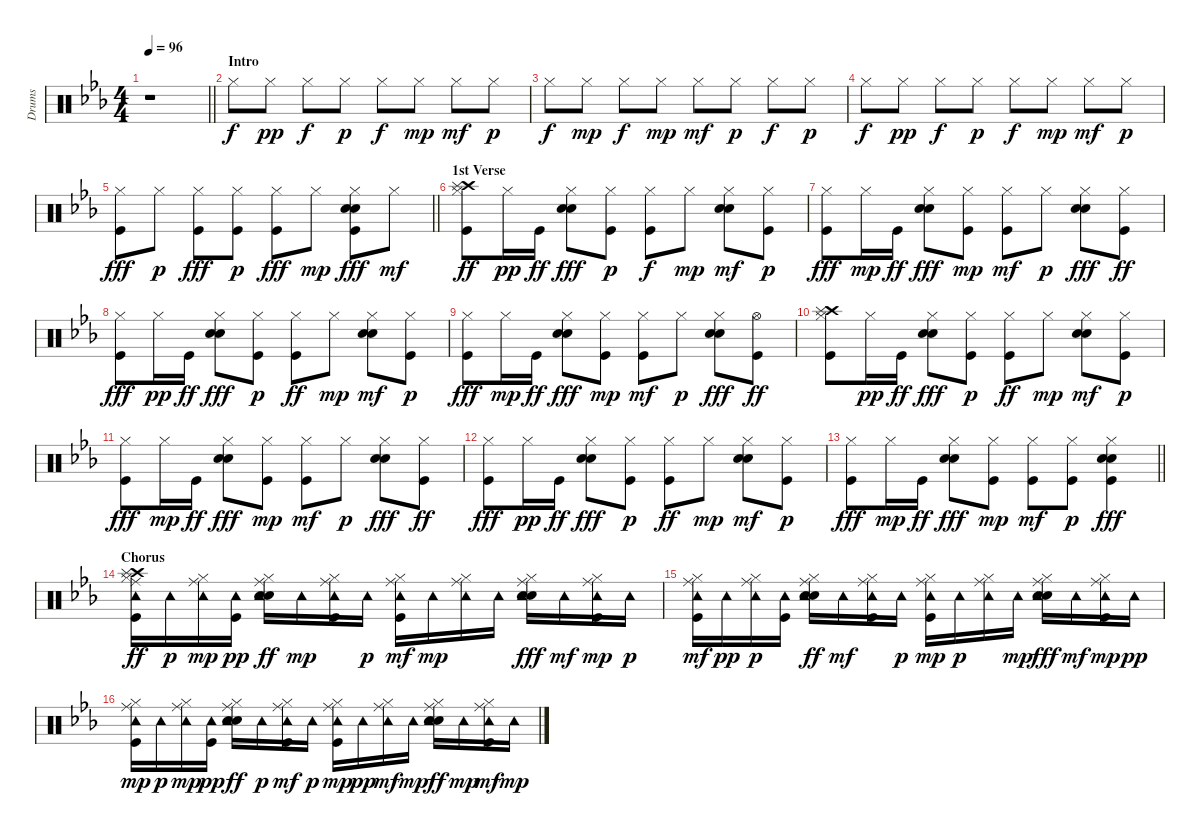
\track ("Drums" "Drums") {instrument percussion}
\staff {score}
\articulation defaults
\ts (4 4)
\tempo 96
\clef neutral
\barLineRight lightlight
\ks eb
r.1{dy f} |
\section ("" "Intro")
"Hi-Hat (closed)".8 "Hi-Hat (closed)".8{dy pp} "Hi-Hat (closed)".8{dy f} "Hi-Hat (closed)".8{dy p} "Hi-Hat (closed)".8{dy f} "Hi-Hat (closed)".8{dy mp} "Hi-Hat (closed)".8{dy mf} "Hi-Hat (closed)".8{dy p} |
"Hi-Hat (closed)".8{dy f} "Hi-Hat (closed)".8{dy mp} "Hi-Hat (closed)".8{dy f} "Hi-Hat (closed)".8{dy mp} "Hi-Hat (closed)".8{dy mf} "Hi-Hat (closed)".8{dy p} "Hi-Hat (closed)".8{dy f} "Hi-Hat (closed)".8{dy p} |
"Hi-Hat (closed)".8{dy f} "Hi-Hat (closed)".8{dy pp} "Hi-Hat (closed)".8{dy f} "Hi-Hat (closed)".8{dy p} "Hi-Hat (closed)".8{dy f} "Hi-Hat (closed)".8{dy mp} "Hi-Hat (closed)".8{dy mf} "Hi-Hat (closed)".8{dy p} |
\barLineRight lightlight
("Kick (hit)" "Hi-Hat (closed)").8{dy fff} "Hi-Hat (closed)".8{dy p} ("Kick (hit)" "Hi-Hat (closed)").8{dy fff} ("Kick (hit)" "Hi-Hat (closed)").8{dy p} ("Kick (hit)" "Hi-Hat (closed)").8{dy fff} "Hi-Hat (closed)".8{dy mp} ("Kick (hit)" "Snare (hit) 2" "Hand Clap (hit)" "Hi-Hat (closed)").8{dy fff} "Hi-Hat (closed)".8{dy mf} |
\section ("" "1st Verse")
("Kick (hit)" "Hi-Hat (closed)" "Crash high (hit)" "Splash (hit)").8{dy ff} "Hi-Hat (closed)".16{dy pp} "Kick (hit)".16{dy ff} ("Snare (hit) 2" "Hand Clap (hit)" "Hi-Hat (closed)").8{dy fff} ("Kick (hit)" "Hi-Hat (closed)").8{dy p} ("Kick (hit)" "Hi-Hat (closed)").8{dy f} "Hi-Hat (closed)".8{dy mp} ("Snare (hit) 2" "Hand Clap (hit)" "Hi-Hat (closed)").8{dy mf} ("Kick (hit)" "Hi-Hat (closed)").8{dy p} |
("Kick (hit)" "Hi-Hat (closed)").8{dy fff} "Hi-Hat (closed)".16{dy mp} "Kick (hit)".16{dy ff} ("Snare (hit) 2" "Hand Clap (hit)" "Hi-Hat (closed)").8{dy fff} ("Kick (hit)" "Hi-Hat (closed)").8{dy mp} ("Kick (hit)" "Hi-Hat (closed)").8{dy mf} "Hi-Hat (closed)".8{dy p} ("Snare (hit) 2" "Hand Clap (hit)" "Hi-Hat (closed)").8{dy fff} ("Kick (hit)" "Hi-Hat (closed)").8{dy ff} |
("Kick (hit)" "Hi-Hat (closed)").8{dy fff} "Hi-Hat (closed)".16{dy pp} "Kick (hit)".16{dy ff} ("Snare (hit) 2" "Hand Clap (hit)" "Hi-Hat (closed)").8{dy fff} ("Kick (hit)" "Hi-Hat (closed)").8{dy p} ("Kick (hit)" "Hi-Hat (closed)").8{dy ff} "Hi-Hat (closed)".8{dy mp} ("Snare (hit) 2" "Hand Clap (hit)" "Hi-Hat (closed)").8{dy mf} ("Kick (hit)" "Hi-Hat (closed)").8{dy p} |
("Kick (hit)" "Hi-Hat (closed)").8{dy fff} "Hi-Hat (closed)".16{dy mp} "Kick (hit)".16{dy ff} ("Snare (hit) 2" "Hand Clap (hit)" "Hi-Hat (closed)").8{dy fff} ("Kick (hit)" "Hi-Hat (closed)").8{dy mp} ("Kick (hit)" "Hi-Hat (closed)").8{dy mf} "Hi-Hat (closed)".8{dy p} ("Snare (hit) 2" "Hand Clap (hit)" "Hi-Hat (closed)").8{dy fff} ("Kick (hit)" "Hi-Hat (open)").8{dy ff} |
("Kick (hit)" "Hi-Hat (closed)" "Crash high (hit)" "Splash (hit)").8 "Hi-Hat (closed)".16{dy pp} "Kick (hit)".16{dy ff} ("Snare (hit) 2" "Hand Clap (hit)" "Hi-Hat (closed)").8{dy fff} ("Kick (hit)" "Hi-Hat (closed)").8{dy p} ("Kick (hit)" "Hi-Hat (closed)").8{dy ff} "Hi-Hat (closed)".8{dy mp} ("Snare (hit) 2" "Hand Clap (hit)" "Hi-Hat (closed)").8{dy mf} ("Kick (hit)" "Hi-Hat (closed)").8{dy p} |
("Kick (hit)" "Hi-Hat (closed)").8{dy fff} "Hi-Hat (closed)".16{dy mp} "Kick (hit)".16{dy ff} ("Snare (hit) 2" "Hand Clap (hit)" "Hi-Hat (closed)").8{dy fff} ("Kick (hit)" "Hi-Hat (closed)").8{dy mp} ("Kick (hit)" "Hi-Hat (closed)").8{dy mf} "Hi-Hat (closed)".8{dy p} ("Snare (hit) 2" "Hand Clap (hit)" "Hi-Hat (closed)").8{dy fff} ("Kick (hit)" "Hi-Hat (closed)").8{dy ff} |
("Kick (hit)" "Hi-Hat (closed)").8{dy fff} "Hi-Hat (closed)".16{dy pp} "Kick (hit)".16{dy ff} ("Snare (hit) 2" "Hand Clap (hit)" "Hi-Hat (closed)").8{dy fff} ("Kick (hit)" "Hi-Hat (closed)").8{dy p} ("Kick (hit)" "Hi-Hat (closed)").8{dy ff} "Hi-Hat (closed)".8{dy mp} ("Snare (hit) 2" "Hand Clap (hit)" "Hi-Hat (closed)").8{dy mf} ("Kick (hit)" "Hi-Hat (closed)").8{dy p} |
\barLineRight lightlight
("Kick (hit)" "Hi-Hat (closed)").8{dy fff} "Hi-Hat (closed)".16{dy mp} "Kick (hit)".16{dy ff} ("Snare (hit) 2" "Hand Clap (hit)" "Hi-Hat (closed)").8{dy fff} ("Kick (hit)" "Hi-Hat (closed)").8{dy mp} ("Kick (hit)" "Hi-Hat (closed)").8{dy mf} ("Kick (hit)" "Hi-Hat (closed)").8{dy p} ("Kick (hit)" "Snare (hit) 2" "Hand Clap (hit)" "Hi-Hat (closed)").4{dy fff} |
\section ("" "Chorus")
("Kick (hit)" "Hi-Hat (closed)" "Crash high (hit)" "Ride (middle)" "Tambourine (hit)" "Splash (hit)").16{dy ff} "Tambourine (hit)".16{dy p} ("Hi-Hat (closed)" "Ride (middle)" "Tambourine (hit)").16{dy mp} ("Kick (hit)" "Tambourine (hit)").16{dy pp} ("Snare (hit) 2" "Hand Clap (hit)" "Hi-Hat (closed)" "Ride (middle)" "Tambourine (hit)").16{dy ff} "Tambourine (hit)".16{dy mp} ("Kick (hit)" "Hi-Hat (closed)" "Ride (middle)" "Tambourine (hit)").16 "Tambourine (hit)".16{dy p} ("Kick (hit)" "Hi-Hat (closed)" "Ride (middle)" "Tambourine (hit)").16{dy mf} "Tambourine (hit)".16{dy mp} ("Hi-Hat (closed)" "Ride (middle)" "Tambourine (hit)").16 "Tambourine (hit)".16 ("Snare (hit) 2" "Hand Clap (hit)" "Hi-Hat (closed)" "Ride (middle)" "Tambourine (hit)").16{dy fff} "Tambourine (hit)".16{dy mf} ("Kick (hit)" "Hi-Hat (closed)" "Ride (middle)" "Tambourine (hit)").16{dy mp} "Tambourine (hit)".16{dy p} |
("Kick (hit)" "Hi-Hat (closed)" "Ride (middle)" "Tambourine (hit)").16{dy mf} "Tambourine (hit)".16{dy pp} ("Hi-Hat (closed)" "Ride (middle)" "Tambourine (hit)").16{dy p} ("Kick (hit)" "Tambourine (hit)").16 ("Snare (hit) 2" "Hand Clap (hit)" "Hi-Hat (closed)" "Ride (middle)" "Tambourine (hit)").16{dy ff} "Tambourine (hit)".16{dy mf} ("Kick (hit)" "Hi-Hat (closed)" "Ride (middle)" "Tambourine (hit)").16 "Tambourine (hit)".16{dy p} ("Kick (hit)" "Hi-Hat (closed)" "Ride (middle)" "Tambourine (hit)").16{dy mp} "Tambourine (hit)".16{dy p} ("Hi-Hat (closed)" "Ride (middle)" "Tambourine (hit)").16 "Tambourine (hit)".16{dy mp} ("Snare (hit) 2" "Hand Clap (hit)" "Hi-Hat (closed)" "Ride (middle)" "Tambourine (hit)").16{dy fff} "Tambourine (hit)".16{dy mf} ("Kick (hit)" "Hi-Hat (closed)" "Ride (middle)" "Tambourine (hit)").16{dy mp} "Tambourine (hit)".16{dy pp} |
("Kick (hit)" "Hi-Hat (closed)" "Ride (middle)" "Tambourine (hit)").16{dy mp} "Tambourine (hit)".16{dy p} ("Hi-Hat (closed)" "Ride (middle)" "Tambourine (hit)").16{dy mp} ("Kick (hit)" "Tambourine (hit)").16{dy pp} ("Snare (hit) 2" "Hand Clap (hit)" "Hi-Hat (closed)" "Ride (middle)" "Tambourine (hit)").16{dy ff} "Tambourine (hit)".16{dy p} ("Kick (hit)" "Hi-Hat (closed)" "Ride (middle)" "Tambourine (hit)").16{dy mf} "Tambourine (hit)".16{dy p} ("Kick (hit)" "Hi-Hat (closed)" "Ride (middle)" "Tambourine (hit)").16{dy mp} "Tambourine (hit)".16{dy pp} ("Hi-Hat (closed)" "Ride (middle)" "Tambourine (hit)").16{dy mf} "Tambourine (hit)".16{dy mp} ("Snare (hit) 2" "Hand Clap (hit)" "Hi-Hat (closed)" "Ride (middle)" "Tambourine (hit)").16{dy ff} "Tambourine (hit)".16{dy mp} ("Kick (hit)" "Hi-Hat (closed)" "Ride (middle)" "Tambourine (hit)").16{dy mf} "Tambourine (hit)".16{dy mp}
